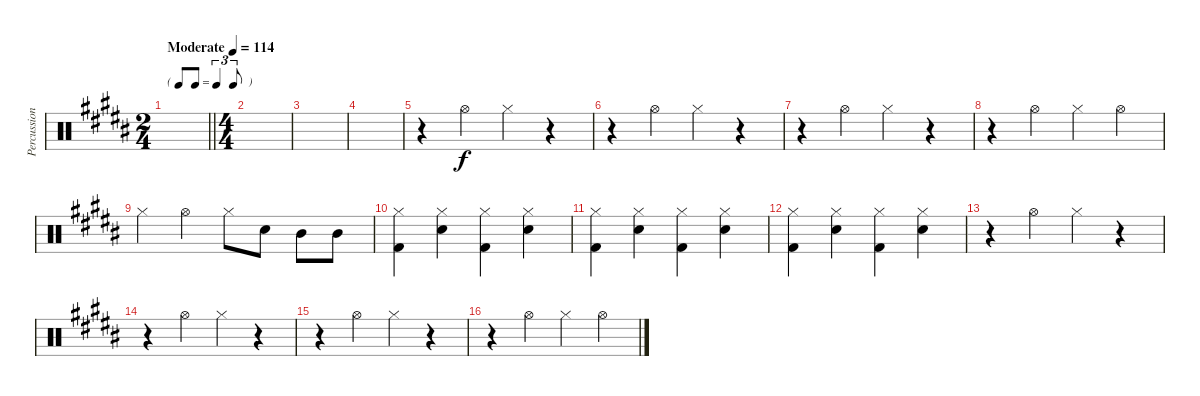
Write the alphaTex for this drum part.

\track ("Percussion" "Percussion") {instrument percussion}
\staff {score}
\articulation defaults
\ts (2 4)
\tf triplet8th
\tempo (114 "Moderate")
\clef neutral
\barLineRight lightlight
\ks b
|
\ts (4 4)
|
|
|
r.4 "Hi-Hat (open)".4 "Hi-Hat (closed)".4 r.4 |
r.4 "Hi-Hat (open)".4 "Hi-Hat (closed)".4 r.4 |
r.4 "Hi-Hat (open)".4 "Hi-Hat (closed)".4 r.4 |
r.4 "Hi-Hat (open)".4 "Hi-Hat (closed)".4 "Hi-Hat (open)".4 |
"Hi-Hat (closed)".4 "Hi-Hat (open)".4 "Hi-Hat (closed)".8 "Snare (hit) 2".8 "Mid Tom (hit)".8 "Mid Tom (hit)".8 |
("Hi-Hat (closed)" "Kick (hit) 2").4 ("Hi-Hat (closed)" "Snare (hit) 2").4 ("Hi-Hat (closed)" "Kick (hit) 2").4 ("Hi-Hat (closed)" "Snare (hit) 2").4 |
("Hi-Hat (closed)" "Kick (hit) 2").4 ("Hi-Hat (closed)" "Snare (hit) 2").4 ("Hi-Hat (closed)" "Kick (hit) 2").4 ("Hi-Hat (closed)" "Snare (hit) 2").4 |
("Hi-Hat (closed)" "Kick (hit) 2").4 ("Hi-Hat (closed)" "Snare (hit) 2").4 ("Hi-Hat (closed)" "Kick (hit) 2").4 ("Hi-Hat (closed)" "Snare (hit) 2").4 |
r.4 "Hi-Hat (open)".4 "Hi-Hat (closed)".4 r.4 |
r.4 "Hi-Hat (open)".4 "Hi-Hat (closed)".4 r.4 |
r.4 "Hi-Hat (open)".4 "Hi-Hat (closed)".4 r.4 |
r.4 "Hi-Hat (open)".4 "Hi-Hat (closed)".4 "Hi-Hat (open)".4
